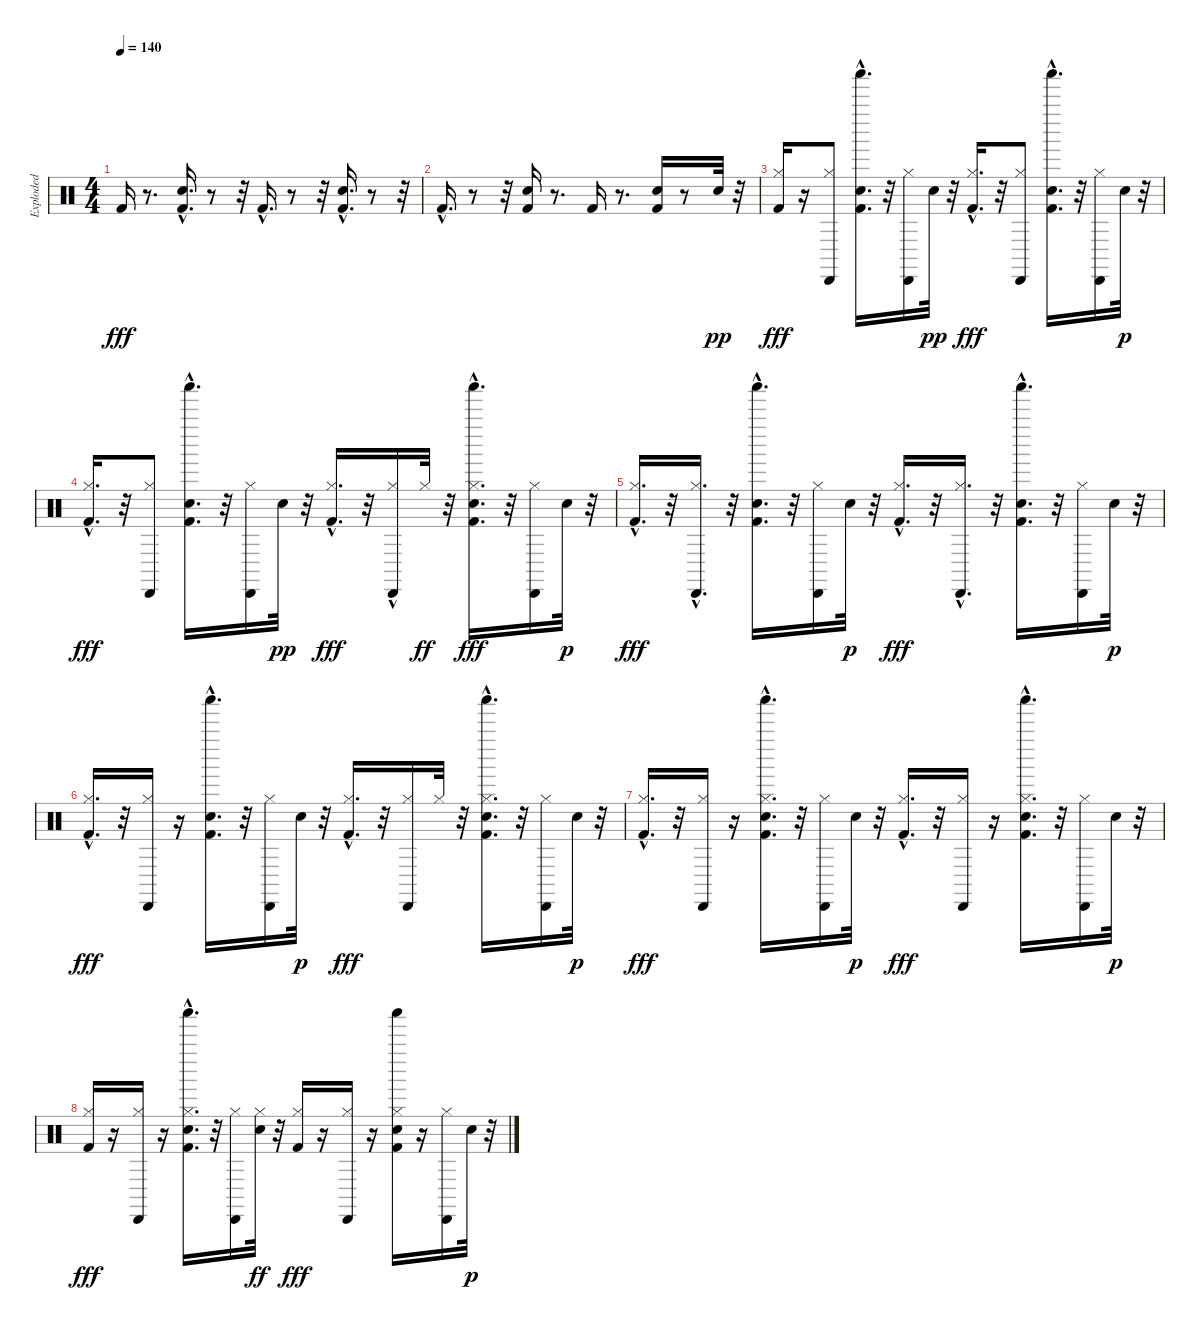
\track ("Exploded" "Exploded") {instrument percussion}
\staff {score}
\articulation defaults
\ts (4 4)
\tempo 140
\clef neutral
\ks c "Kick (hit) 2".16{dy fff}
r.8{d} ("Hand Clap (hit)" "Kick (hit) 2"{hac}).16{d} r.8 r.32 "Kick (hit) 2"{hac}.16{d} r.8 r.32 ("Hand Clap (hit)" "Kick (hit) 2"{hac}).16{d} r.8 r.32 |
"Kick (hit) 2"{hac}.16{d} r.8 r.32 ("Hand Clap (hit)" "Kick (hit) 2").16 r.8{d} "Kick (hit) 2".16 r.8{d} ("Hand Clap (hit)" "Kick (hit) 2").16 r.8 "Snare (hit) 2".32{dy pp} r.32 |
("Hi-Hat (closed)" "Kick (hit) 2").16{dy fff} r.16 ("Hi-Hat (closed)" "Cabasa (hit)").8 ("Shaker (hit)" "Hand Clap (hit)" "Kick (hit) 2"{hac}).16{d} r.32 ("Hi-Hat (closed)" "Cabasa (hit)").16 "Snare (hit) 2".32{dy pp} r.32 ("Hi-Hat (closed)" "Kick (hit) 2"{hac}).16{d dy fff} r.32 ("Hi-Hat (closed)" "Cabasa (hit)").8 ("Shaker (hit)" "Hand Clap (hit)" "Kick (hit) 2"{hac}).16{d} r.32 ("Hi-Hat (closed)" "Cabasa (hit)").16 "Snare (hit) 2".32{dy p} r.32 |
("Hi-Hat (closed)" "Kick (hit) 2"{hac}).16{d dy fff} r.32 ("Hi-Hat (closed)" "Cabasa (hit)").8 ("Shaker (hit)"{hac} "Hand Clap (hit)" "Kick (hit) 2"{hac}).16{d} r.32 ("Hi-Hat (closed)" "Cabasa (hit)").16 "Snare (hit) 2".32{dy pp} r.32 ("Hi-Hat (closed)" "Kick (hit) 2"{hac}).16{d dy fff} r.32 ("Hi-Hat (closed)" "Cabasa (hit)"{hac}).16 "Hi-Hat (closed)".32{dy ff} r.32 ("Hi-Hat (closed)" "Shaker (hit)"{hac} "Hand Clap (hit)" "Kick (hit) 2"{hac}).16{d dy fff} r.32 ("Hi-Hat (closed)" "Cabasa (hit)").16 "Snare (hit) 2".32{dy p} r.32 |
("Hi-Hat (closed)" "Kick (hit) 2"{hac}).16{d dy fff} r.32 ("Hi-Hat (closed)" "Cabasa (hit)"{hac}).16{d} r.32 ("Shaker (hit)"{hac} "Hand Clap (hit)" "Kick (hit) 2"{hac}).16{d} r.32 ("Hi-Hat (closed)" "Cabasa (hit)").16 "Snare (hit) 2".32{dy p} r.32 ("Hi-Hat (closed)" "Kick (hit) 2"{hac}).16{d dy fff} r.32 ("Hi-Hat (closed)" "Cabasa (hit)"{hac}).16{d} r.32 ("Shaker (hit)"{hac} "Hand Clap (hit)" "Kick (hit) 2"{hac}).16{d} r.32 ("Hi-Hat (closed)" "Cabasa (hit)").16 "Snare (hit) 2".32{dy p} r.32 |
("Hi-Hat (closed)" "Kick (hit) 2"{hac}).16{d dy fff} r.32 ("Hi-Hat (closed)" "Cabasa (hit)").16 r.16 ("Shaker (hit)"{hac} "Hand Clap (hit)" "Kick (hit) 2"{hac}).16{d} r.32 ("Hi-Hat (closed)" "Cabasa (hit)").16 "Snare (hit) 2".32{dy p} r.32 ("Hi-Hat (closed)" "Kick (hit) 2"{hac}).16{d dy fff} r.32 ("Hi-Hat (closed)" "Cabasa (hit)").16 "Hi-Hat (closed)".32 r.32 ("Hi-Hat (closed)" "Shaker (hit)"{hac} "Hand Clap (hit)" "Kick (hit) 2"{hac}).16{d} r.32 ("Hi-Hat (closed)" "Cabasa (hit)").16 "Snare (hit) 2".32{dy p} r.32 |
("Hi-Hat (closed)" "Kick (hit) 2"{hac}).16{d dy fff} r.32 ("Hi-Hat (closed)" "Cabasa (hit)").16 r.16 ("Hi-Hat (closed)" "Shaker (hit)"{hac} "Hand Clap (hit)" "Kick (hit) 2"{hac}).16{d} r.32 ("Hi-Hat (closed)" "Cabasa (hit)").16 "Snare (hit) 2".32{dy p} r.32 ("Hi-Hat (closed)" "Kick (hit) 2"{hac}).16{d dy fff} r.32 ("Hi-Hat (closed)" "Cabasa (hit)").16 r.16 ("Hi-Hat (closed)" "Shaker (hit)" "Hand Clap (hit)" "Kick (hit) 2"{hac}).16{d} r.32 ("Hi-Hat (closed)" "Cabasa (hit)").16 "Snare (hit) 2".32{dy p} r.32 |
("Hi-Hat (closed)" "Kick (hit) 2").16{dy fff} r.16 ("Hi-Hat (closed)" "Cabasa (hit)").16 r.16 ("Hi-Hat (closed)" "Shaker (hit)"{hac} "Hand Clap (hit)" "Kick (hit) 2").16{d} r.32 ("Hi-Hat (closed)" "Cabasa (hit)").16 ("Snare (hit) 2" "Hi-Hat (closed)").32{dy ff} r.32 ("Hi-Hat (closed)" "Kick (hit) 2").16{dy fff} r.16 ("Hi-Hat (closed)" "Cabasa (hit)").16 r.16 ("Hi-Hat (closed)" "Shaker (hit)" "Hand Clap (hit)" "Kick (hit) 2").16 r.16 ("Hi-Hat (closed)" "Cabasa (hit)").16 "Snare (hit) 2".32{dy p} r.32
